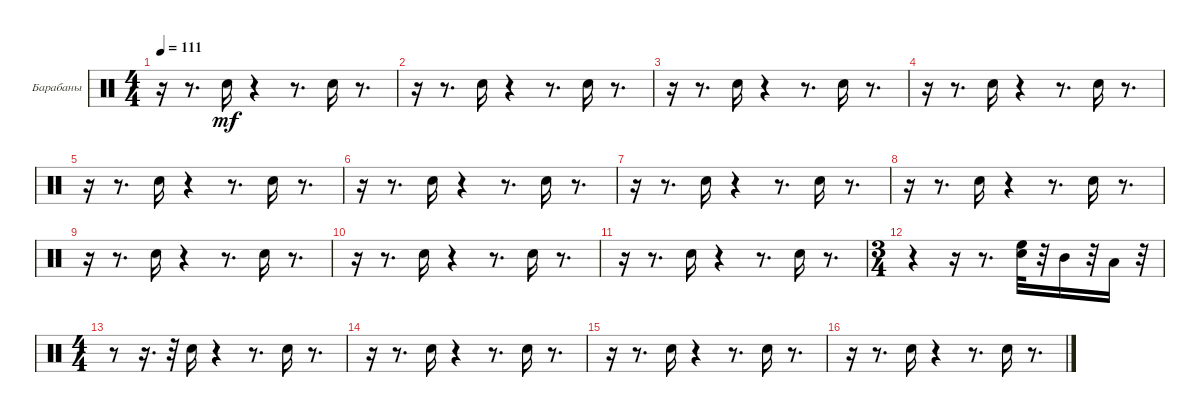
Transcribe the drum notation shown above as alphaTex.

\bracketExtendMode groupsimilarinstruments
\firstSystemTrackNameOrientation horizontal
\otherSystemsTrackNameOrientation horizontal
\track ("Барабаны" "Барабаны") {instrument percussion}
\staff {score}
\articulation defaults
\ts (4 4)
\tempo 111
\clef neutral
\ks c
r.16{dy mf} r.8{d} "Snare (hit) 2".16 r.4 r.8{d} "Snare (hit) 2".16 r.8{d} |
r.16 r.8{d} "Snare (hit) 2".16 r.4 r.8{d} "Snare (hit) 2".16 r.8{d} |
r.16 r.8{d} "Snare (hit) 2".16 r.4 r.8{d} "Snare (hit) 2".16 r.8{d} |
r.16 r.8{d} "Snare (hit) 2".16 r.4 r.8{d} "Snare (hit) 2".16 r.8{d} |
r.16 r.8{d} "Snare (hit) 2".16 r.4 r.8{d} "Snare (hit) 2".16 r.8{d} |
r.16 r.8{d} "Snare (hit) 2".16 r.4 r.8{d} "Snare (hit) 2".16 r.8{d} |
r.16 r.8{d} "Snare (hit) 2".16 r.4 r.8{d} "Snare (hit) 2".16 r.8{d} |
r.16 r.8{d} "Snare (hit) 2".16 r.4 r.8{d} "Snare (hit) 2".16 r.8{d} |
r.16 r.8{d} "Snare (hit) 2".16 r.4 r.8{d} "Snare (hit) 2".16 r.8{d} |
r.16 r.8{d} "Snare (hit) 2".16 r.4 r.8{d} "Snare (hit) 2".16 r.8{d} |
r.16 r.8{d} "Snare (hit) 2".16 r.4 r.8{d} "Snare (hit) 2".16 r.8{d} |
\ts (3 4)
r.4 r.16 r.8{d} ("Snare (hit) 2" "High Floor Tom (hit)").32 r.32 "Mid Tom (hit)".16 r.32 "Low Tom (hit)".16 r.32 |
\ts (4 4)
r.8 r.16{d} r.32 "Snare (hit) 2".16 r.4 r.8{d} "Snare (hit) 2".16 r.8{d} |
r.16 r.8{d} "Snare (hit) 2".16 r.4 r.8{d} "Snare (hit) 2".16 r.8{d} |
r.16 r.8{d} "Snare (hit) 2".16 r.4 r.8{d} "Snare (hit) 2".16 r.8{d} |
r.16 r.8{d} "Snare (hit) 2".16 r.4 r.8{d} "Snare (hit) 2".16 r.8{d}
